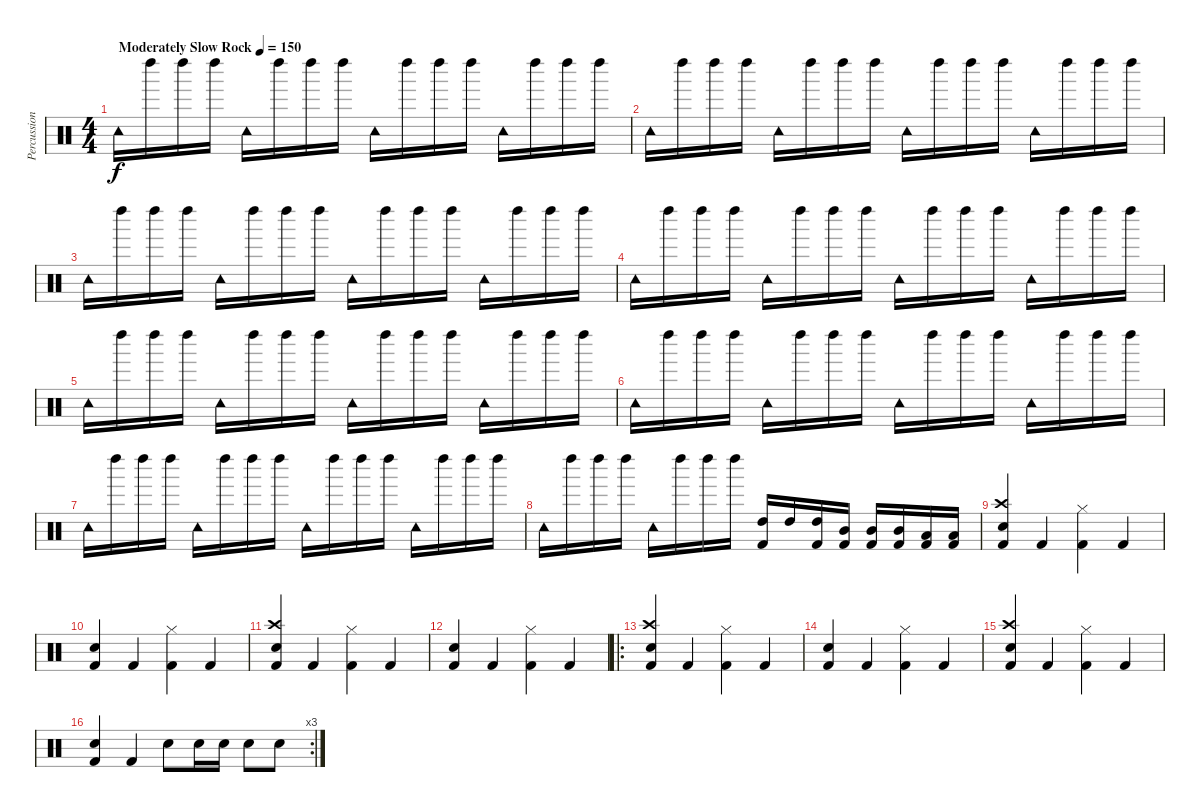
\track ("Percussion" "Percussion") {instrument percussion}
\staff {score}
\articulation defaults
\ts (4 4)
\tempo (150 "Moderately Slow Rock")
\clef neutral
\ks c "Tambourine (hit)".16{dy f} "Left Maraca (hit)".16 "Left Maraca (hit)".16 "Left Maraca (hit)".16 "Tambourine (hit)".16 "Left Maraca (hit)".16 "Left Maraca (hit)".16 "Left Maraca (hit)".16 "Tambourine (hit)".16 "Left Maraca (hit)".16 "Left Maraca (hit)".16 "Left Maraca (hit)".16 "Tambourine (hit)".16 "Left Maraca (hit)".16 "Left Maraca (hit)".16 "Left Maraca (hit)".16
|
"Tambourine (hit)".16 "Left Maraca (hit)".16 "Left Maraca (hit)".16 "Left Maraca (hit)".16 "Tambourine (hit)".16 "Left Maraca (hit)".16 "Left Maraca (hit)".16 "Left Maraca (hit)".16 "Tambourine (hit)".16 "Left Maraca (hit)".16 "Left Maraca (hit)".16 "Left Maraca (hit)".16 "Tambourine (hit)".16 "Left Maraca (hit)".16 "Left Maraca (hit)".16 "Left Maraca (hit)".16 |
"Tambourine (hit)".16 "Left Maraca (hit)".16 "Left Maraca (hit)".16 "Left Maraca (hit)".16 "Tambourine (hit)".16 "Left Maraca (hit)".16 "Left Maraca (hit)".16 "Left Maraca (hit)".16 "Tambourine (hit)".16 "Left Maraca (hit)".16 "Left Maraca (hit)".16 "Left Maraca (hit)".16 "Tambourine (hit)".16 "Left Maraca (hit)".16 "Left Maraca (hit)".16 "Left Maraca (hit)".16 |
"Tambourine (hit)".16 "Left Maraca (hit)".16 "Left Maraca (hit)".16 "Left Maraca (hit)".16 "Tambourine (hit)".16 "Left Maraca (hit)".16 "Left Maraca (hit)".16 "Left Maraca (hit)".16 "Tambourine (hit)".16 "Left Maraca (hit)".16 "Left Maraca (hit)".16 "Left Maraca (hit)".16 "Tambourine (hit)".16 "Left Maraca (hit)".16 "Left Maraca (hit)".16 "Left Maraca (hit)".16 |
"Tambourine (hit)".16 "Left Maraca (hit)".16 "Left Maraca (hit)".16 "Left Maraca (hit)".16 "Tambourine (hit)".16 "Left Maraca (hit)".16 "Left Maraca (hit)".16 "Left Maraca (hit)".16 "Tambourine (hit)".16 "Left Maraca (hit)".16 "Left Maraca (hit)".16 "Left Maraca (hit)".16 "Tambourine (hit)".16 "Left Maraca (hit)".16 "Left Maraca (hit)".16 "Left Maraca (hit)".16 |
"Tambourine (hit)".16 "Left Maraca (hit)".16 "Left Maraca (hit)".16 "Left Maraca (hit)".16 "Tambourine (hit)".16 "Left Maraca (hit)".16 "Left Maraca (hit)".16 "Left Maraca (hit)".16 "Tambourine (hit)".16 "Left Maraca (hit)".16 "Left Maraca (hit)".16 "Left Maraca (hit)".16 "Tambourine (hit)".16 "Left Maraca (hit)".16 "Left Maraca (hit)".16 "Left Maraca (hit)".16 |
"Tambourine (hit)".16 "Left Maraca (hit)".16 "Left Maraca (hit)".16 "Left Maraca (hit)".16 "Tambourine (hit)".16 "Left Maraca (hit)".16 "Left Maraca (hit)".16 "Left Maraca (hit)".16 "Tambourine (hit)".16 "Left Maraca (hit)".16 "Left Maraca (hit)".16 "Left Maraca (hit)".16 "Tambourine (hit)".16 "Left Maraca (hit)".16 "Left Maraca (hit)".16 "Left Maraca (hit)".16 |
"Tambourine (hit)".16 "Left Maraca (hit)".16 "Left Maraca (hit)".16 "Left Maraca (hit)".16 "Tambourine (hit)".16 "Left Maraca (hit)".16 "Left Maraca (hit)".16 "Left Maraca (hit)".16 ("High Tom (hit)" "Kick (hit) 2").16 "High Tom (hit)".16 ("High Tom (hit)" "Kick (hit) 2").16 ("Mid Tom (hit)" "Kick (hit) 2").16 ("Mid Tom (hit)" "Kick (hit) 2").16 ("Mid Tom (hit)" "Kick (hit) 2").16 ("Low Tom (hit)" "Kick (hit) 2").16 ("Low Tom (hit)" "Kick (hit) 2").16 |
("Crash high (hit)" "Electric Snare (hit)" "Kick (hit) 2").4 "Kick (hit) 2".4 ("Hi-Hat (closed)" "Kick (hit) 2").4 "Kick (hit) 2".4 |
("Electric Snare (hit)" "Kick (hit) 2").4 "Kick (hit) 2".4 ("Hi-Hat (closed)" "Kick (hit) 2").4 "Kick (hit) 2".4 |
("Crash high (hit)" "Electric Snare (hit)" "Kick (hit) 2").4 "Kick (hit) 2".4 ("Hi-Hat (closed)" "Kick (hit) 2").4 "Kick (hit) 2".4 |
("Electric Snare (hit)" "Kick (hit) 2").4 "Kick (hit) 2".4 ("Hi-Hat (closed)" "Kick (hit) 2").4 "Kick (hit) 2".4 |
\ro
("Crash high (hit)" "Electric Snare (hit)" "Kick (hit) 2").4 "Kick (hit) 2".4 ("Hi-Hat (closed)" "Kick (hit) 2").4 "Kick (hit) 2".4 |
("Electric Snare (hit)" "Kick (hit) 2").4 "Kick (hit) 2".4 ("Hi-Hat (closed)" "Kick (hit) 2").4 "Kick (hit) 2".4 |
("Crash high (hit)" "Electric Snare (hit)" "Kick (hit) 2").4 "Kick (hit) 2".4 ("Hi-Hat (closed)" "Kick (hit) 2").4 "Kick (hit) 2".4 |
\rc 3
("Electric Snare (hit)" "Kick (hit) 2").4 "Kick (hit) 2".4 "Electric Snare (hit)".8 "Electric Snare (hit)".16 "Electric Snare (hit)".16 "Electric Snare (hit)".8 "Electric Snare (hit)".8
